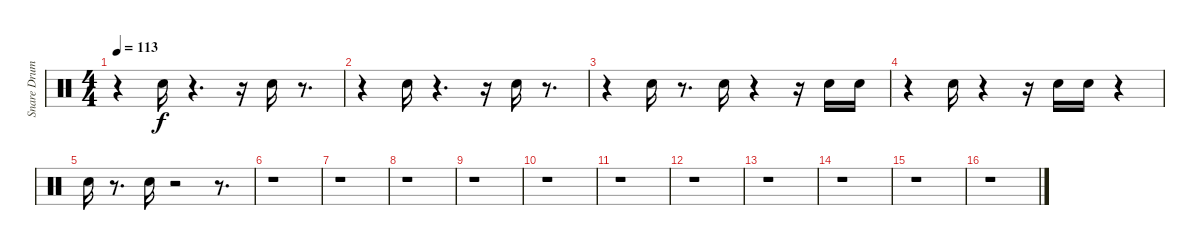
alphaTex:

\track ("Snare Drum" "Snare Drum") {instrument percussion}
\staff {score}
\articulation defaults
\ts (4 4)
\tempo 113
\clef neutral
\ks c
r.4{dy f} "Snare (hit) 2".16 r.4{d} r.16 "Snare (hit) 2".16 r.8{d} |
r.4 "Snare (hit) 2".16 r.4{d} r.16 "Snare (hit) 2".16 r.8{d} |
r.4 "Snare (hit) 2".16 r.8{d} "Snare (hit) 2".16 r.4 r.16 "Snare (hit) 2".16 "Snare (hit) 2".16 |
r.4 "Snare (hit) 2".16 r.4 r.16 "Snare (hit) 2".16 "Snare (hit) 2".16 r.4 |
"Snare (hit) 2".16 r.8{d} "Snare (hit) 2".16 r.2 r.8{d} |
r.1 |
r.1 |
r.1 |
r.1 |
r.1 |
r.1 |
r.1 |
r.1 |
r.1 |
r.1 |
r.1
